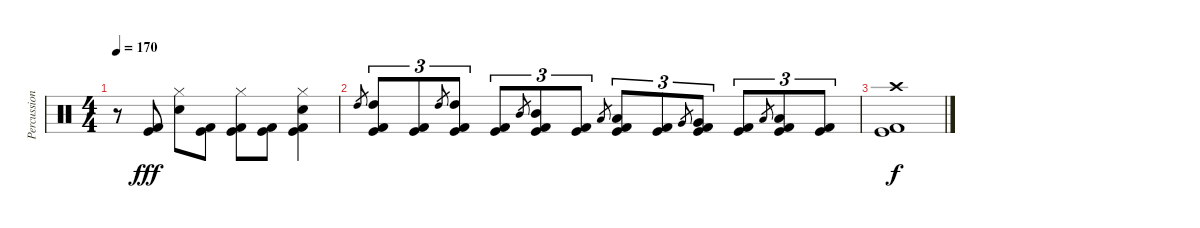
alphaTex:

\track ("Percussion" "Percussion") {instrument percussion}
\staff {score}
\articulation defaults
\ts (4 4)
\tempo 170
\clef neutral
\ks c
r.8{dy fff} ("Kick (hit) 2" "Kick (hit)").8 ("Electric Snare (hit)" "Hi-Hat (closed)").8 ("Kick (hit) 2" "Kick (hit)").8 ("Kick (hit) 2" "Kick (hit)" "Hi-Hat (closed)").8 ("Kick (hit) 2" "Kick (hit)").8 ("Electric Snare (hit)" "Kick (hit) 2" "Kick (hit)" "Hi-Hat (closed)").4 |
"High Tom (hit)".8{gr} ("High Tom (hit)" "Kick (hit) 2" "Kick (hit)").8{tu (3 2)} ("Kick (hit) 2" "Kick (hit)").8{tu (3 2)} "High Tom (hit)".8{gr} ("High Tom (hit)" "Kick (hit) 2" "Kick (hit)").8{tu (3 2)} ("Kick (hit) 2" "Kick (hit)").8{tu (3 2)} "Mid Tom (hit)".8{gr} ("Mid Tom (hit)" "Kick (hit) 2" "Kick (hit)").8{tu (3 2)} ("Kick (hit) 2" "Kick (hit)").8{tu (3 2)} "Low Tom (hit)".8{gr} ("Low Tom (hit)" "Kick (hit) 2" "Kick (hit)").8{tu (3 2)} ("Kick (hit) 2" "Kick (hit)").8{tu (3 2)} "Very Low Tom (hit)".8{gr} ("Very Low Tom (hit)" "Kick (hit) 2" "Kick (hit)").8{tu (3 2)} ("Kick (hit) 2" "Kick (hit)").8{tu (3 2)} "Low Floor Tom (hit)".8{gr} ("Low Floor Tom (hit)" "Kick (hit) 2" "Kick (hit)").8{tu (3 2)} ("Kick (hit) 2" "Kick (hit)").8{tu (3 2)} |
("Crash high (hit)" "Kick (hit) 2" "Kick (hit)").1{dy f}
